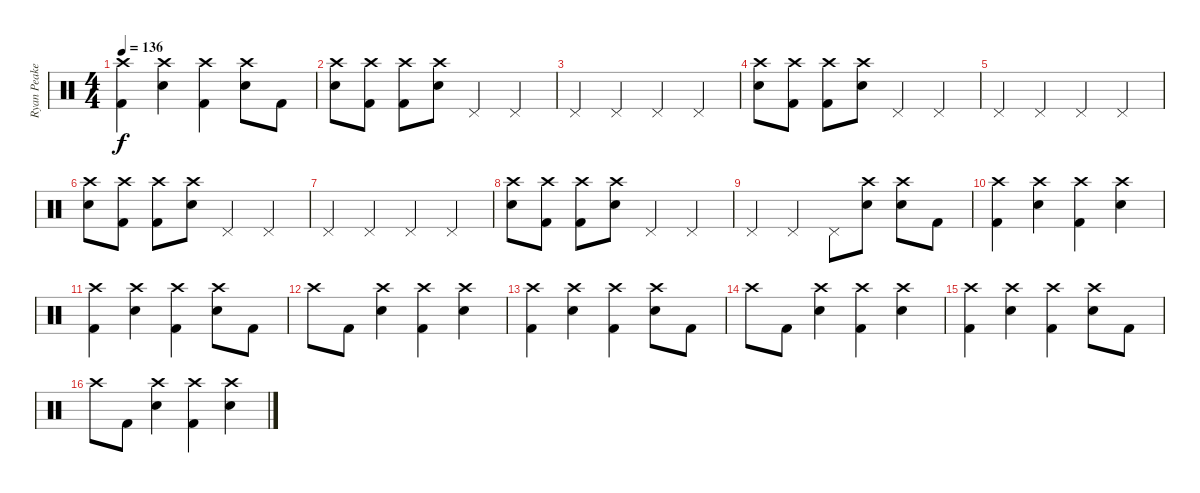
\track ("Ryan Peake" "Ryan Peake") {instrument percussion}
\staff {score}
\articulation defaults
\ts (4 4)
\tempo 136
\clef neutral
\ks c
("Kick (hit) 2" "Crash high (hit)").4{dy f} ("Snare (hit) 2" "Crash high (hit)").4 ("Kick (hit) 2" "Crash high (hit)").4 ("Snare (hit) 2" "Crash high (hit)").8 "Kick (hit) 2".8 |
("Snare (hit) 2" "Crash high (hit)").8 ("Kick (hit) 2" "Crash high (hit)").8 ("Kick (hit) 2" "Crash high (hit)").8 ("Snare (hit) 2" "Crash high (hit)").8 "Pedal Hi-Hat (hit)".4 "Pedal Hi-Hat (hit)".4 |
"Pedal Hi-Hat (hit)".4 "Pedal Hi-Hat (hit)".4 "Pedal Hi-Hat (hit)".4 "Pedal Hi-Hat (hit)".4 |
("Snare (hit) 2" "Crash high (hit)").8 ("Kick (hit) 2" "Crash high (hit)").8 ("Kick (hit) 2" "Crash high (hit)").8 ("Snare (hit) 2" "Crash high (hit)").8 "Pedal Hi-Hat (hit)".4 "Pedal Hi-Hat (hit)".4 |
"Pedal Hi-Hat (hit)".4 "Pedal Hi-Hat (hit)".4 "Pedal Hi-Hat (hit)".4 "Pedal Hi-Hat (hit)".4 |
("Snare (hit) 2" "Crash high (hit)").8 ("Kick (hit) 2" "Crash high (hit)").8 ("Kick (hit) 2" "Crash high (hit)").8 ("Snare (hit) 2" "Crash high (hit)").8 "Pedal Hi-Hat (hit)".4 "Pedal Hi-Hat (hit)".4 |
"Pedal Hi-Hat (hit)".4 "Pedal Hi-Hat (hit)".4 "Pedal Hi-Hat (hit)".4 "Pedal Hi-Hat (hit)".4 |
("Snare (hit) 2" "Crash high (hit)").8 ("Kick (hit) 2" "Crash high (hit)").8 ("Kick (hit) 2" "Crash high (hit)").8 ("Snare (hit) 2" "Crash high (hit)").8 "Pedal Hi-Hat (hit)".4 "Pedal Hi-Hat (hit)".4 |
"Pedal Hi-Hat (hit)".4 "Pedal Hi-Hat (hit)".4 "Pedal Hi-Hat (hit)".8 ("Snare (hit) 2" "Crash high (hit)").8 ("Snare (hit) 2" "Crash high (hit)").8 "Kick (hit) 2".8 |
("Kick (hit) 2" "Crash high (hit)").4 ("Snare (hit) 2" "Crash high (hit)").4 ("Kick (hit) 2" "Crash high (hit)").4 ("Snare (hit) 2" "Crash high (hit)").4 |
("Kick (hit) 2" "Crash high (hit)").4 ("Snare (hit) 2" "Crash high (hit)").4 ("Kick (hit) 2" "Crash high (hit)").4 ("Snare (hit) 2" "Crash high (hit)").8 "Kick (hit) 2".8 |
"Crash high (hit)".8 "Kick (hit) 2".8 ("Snare (hit) 2" "Crash high (hit)").4 ("Kick (hit) 2" "Crash high (hit)").4 ("Snare (hit) 2" "Crash high (hit)").4 |
("Kick (hit) 2" "Crash high (hit)").4 ("Snare (hit) 2" "Crash high (hit)").4 ("Kick (hit) 2" "Crash high (hit)").4 ("Snare (hit) 2" "Crash high (hit)").8 "Kick (hit) 2".8 |
"Crash high (hit)".8 "Kick (hit) 2".8 ("Snare (hit) 2" "Crash high (hit)").4 ("Kick (hit) 2" "Crash high (hit)").4 ("Snare (hit) 2" "Crash high (hit)").4 |
("Kick (hit) 2" "Crash high (hit)").4 ("Snare (hit) 2" "Crash high (hit)").4 ("Kick (hit) 2" "Crash high (hit)").4 ("Snare (hit) 2" "Crash high (hit)").8 "Kick (hit) 2".8 |
"Crash high (hit)".8 "Kick (hit) 2".8 ("Snare (hit) 2" "Crash high (hit)").4 ("Kick (hit) 2" "Crash high (hit)").4 ("Snare (hit) 2" "Crash high (hit)").4
